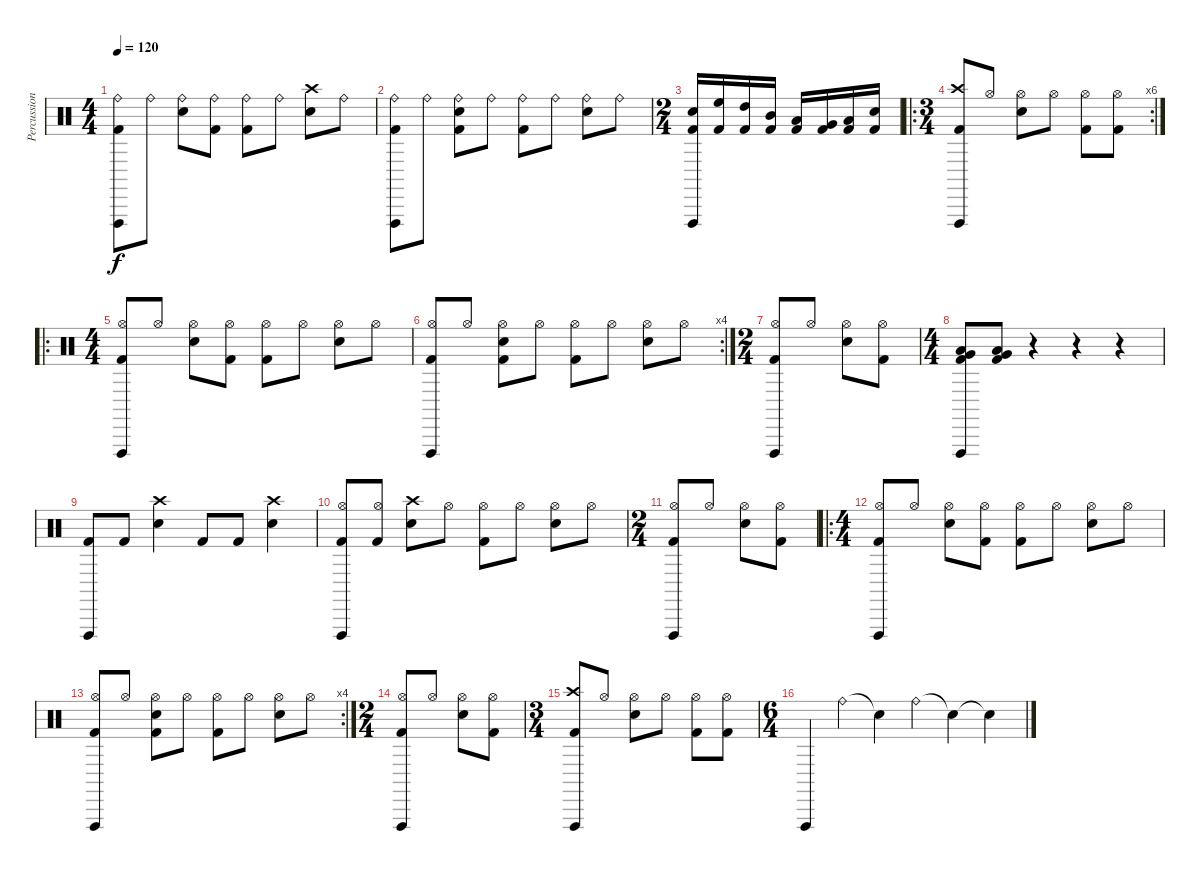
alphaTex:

\track ("Percussion" "Percussion") {instrument percussion}
\staff {score}
\articulation defaults
\ts (4 4)
\tempo 120
\clef neutral
\ks c
("Ride (bell)" "Vibraslap (hit)" "Kick (hit) 2").8{dy f} "Ride (bell)".8 ("Ride (bell)" "Electric Snare (hit)").8 ("Ride (bell)" "Kick (hit) 2").8 ("Ride (bell)" "Kick (hit) 2").8 "Ride (bell)".8 ("Crash high (hit)" "Electric Snare (hit)").8 "Ride (bell)".8 |
("Ride (bell)" "Vibraslap (hit)" "Kick (hit) 2").8 "Ride (bell)".8 ("Ride (bell)" "Electric Snare (hit)" "Kick (hit) 2").8 "Ride (bell)".8 ("Ride (bell)" "Kick (hit) 2").8 "Ride (bell)".8 ("Ride (bell)" "Electric Snare (hit)").8 "Ride (bell)".8 |
\ts (2 4)
("Vibraslap (hit)" "Electric Snare (hit)" "Kick (hit) 2").16 ("High Floor Tom (hit)" "Kick (hit) 2").16 ("High Tom (hit)" "Kick (hit) 2").16 ("Mid Tom (hit)" "Kick (hit) 2").16 ("Low Tom (hit)" "Kick (hit) 2").16 ("Very Low Tom (hit)" "Kick (hit) 2").16 ("Low Floor Tom (hit)" "Kick (hit) 2").16 ("Electric Snare (hit)" "Kick (hit) 2").16 |
\ro
\rc 6
\ts (3 4)
("Crash high (hit)" "Vibraslap (hit)" "Kick (hit) 2").8 "Hi-Hat (open)".8 ("Hi-Hat (open)" "Electric Snare (hit)").8 "Hi-Hat (open)".8 ("Hi-Hat (open)" "Kick (hit) 2").8 ("Hi-Hat (open)" "Kick (hit) 2").8 |
\ro
\ts (4 4)
("Hi-Hat (open)" "Vibraslap (hit)" "Kick (hit) 2").8 "Hi-Hat (open)".8 ("Hi-Hat (open)" "Electric Snare (hit)").8 ("Hi-Hat (open)" "Kick (hit) 2").8 ("Hi-Hat (open)" "Kick (hit) 2").8 "Hi-Hat (open)".8 ("Hi-Hat (open)" "Electric Snare (hit)").8 "Hi-Hat (open)".8 |
\rc 4
("Hi-Hat (open)" "Vibraslap (hit)" "Kick (hit) 2").8 "Hi-Hat (open)".8 ("Hi-Hat (open)" "Electric Snare (hit)" "Kick (hit) 2").8 "Hi-Hat (open)".8 ("Hi-Hat (open)" "Kick (hit) 2").8 "Hi-Hat (open)".8 ("Hi-Hat (open)" "Electric Snare (hit)").8 "Hi-Hat (open)".8 |
\ts (2 4)
("Hi-Hat (open)" "Vibraslap (hit)" "Kick (hit) 2").8 "Hi-Hat (open)".8 ("Hi-Hat (open)" "Electric Snare (hit)").8 ("Hi-Hat (open)" "Kick (hit) 2").8 |
\ts (4 4)
("Vibraslap (hit)" "Low Tom (hit)" "Very Low Tom (hit)" "Kick (hit) 2").8 ("Low Tom (hit)" "Very Low Tom (hit)" "Kick (hit) 2").8 r.4 r.4 r.4 |
("Vibraslap (hit)" "Kick (hit) 2").8 "Kick (hit) 2".8 ("Crash high (hit)" "Electric Snare (hit)").4 "Kick (hit) 2".8 "Kick (hit) 2".8 ("Crash high (hit)" "Electric Snare (hit)").4 |
("Hi-Hat (open)" "Vibraslap (hit)" "Kick (hit) 2").8 ("Hi-Hat (open)" "Kick (hit) 2").8 ("Crash high (hit)" "Electric Snare (hit)").8 "Hi-Hat (open)".8 ("Hi-Hat (open)" "Kick (hit) 2").8 "Hi-Hat (open)".8 ("Hi-Hat (open)" "Electric Snare (hit)").8 "Hi-Hat (open)".8 |
\ts (2 4)
("Hi-Hat (open)" "Vibraslap (hit)" "Kick (hit) 2").8 "Hi-Hat (open)".8 ("Hi-Hat (open)" "Electric Snare (hit)").8 ("Hi-Hat (open)" "Kick (hit) 2").8 |
\ro
\ts (4 4)
("Hi-Hat (open)" "Vibraslap (hit)" "Kick (hit) 2").8 "Hi-Hat (open)".8 ("Hi-Hat (open)" "Electric Snare (hit)").8 ("Hi-Hat (open)" "Kick (hit) 2").8 ("Hi-Hat (open)" "Kick (hit) 2").8 "Hi-Hat (open)".8 ("Hi-Hat (open)" "Electric Snare (hit)").8 "Hi-Hat (open)".8 |
\rc 4
("Hi-Hat (open)" "Vibraslap (hit)" "Kick (hit) 2").8 "Hi-Hat (open)".8 ("Hi-Hat (open)" "Electric Snare (hit)" "Kick (hit) 2").8 "Hi-Hat (open)".8 ("Hi-Hat (open)" "Kick (hit) 2").8 "Hi-Hat (open)".8 ("Hi-Hat (open)" "Electric Snare (hit)").8 "Hi-Hat (open)".8 |
\ts (2 4)
("Hi-Hat (open)" "Vibraslap (hit)" "Kick (hit) 2").8 "Hi-Hat (open)".8 ("Hi-Hat (open)" "Electric Snare (hit)").8 ("Hi-Hat (open)" "Kick (hit) 2").8 |
\ts (3 4)
("Crash high (hit)" "Vibraslap (hit)" "Kick (hit) 2").8 "Hi-Hat (open)".8 ("Hi-Hat (open)" "Electric Snare (hit)").8 "Hi-Hat (open)".8 ("Hi-Hat (open)" "Kick (hit) 2").8 ("Hi-Hat (open)" "Kick (hit) 2").8 |
\ts (6 4)
"Vibraslap (hit)".4 "Ride (bell)".4 "Snare (hit)"{t}.4 "Ride (bell)".4 "Snare (hit)"{t}.4 "Snare (hit)"{t}.4
